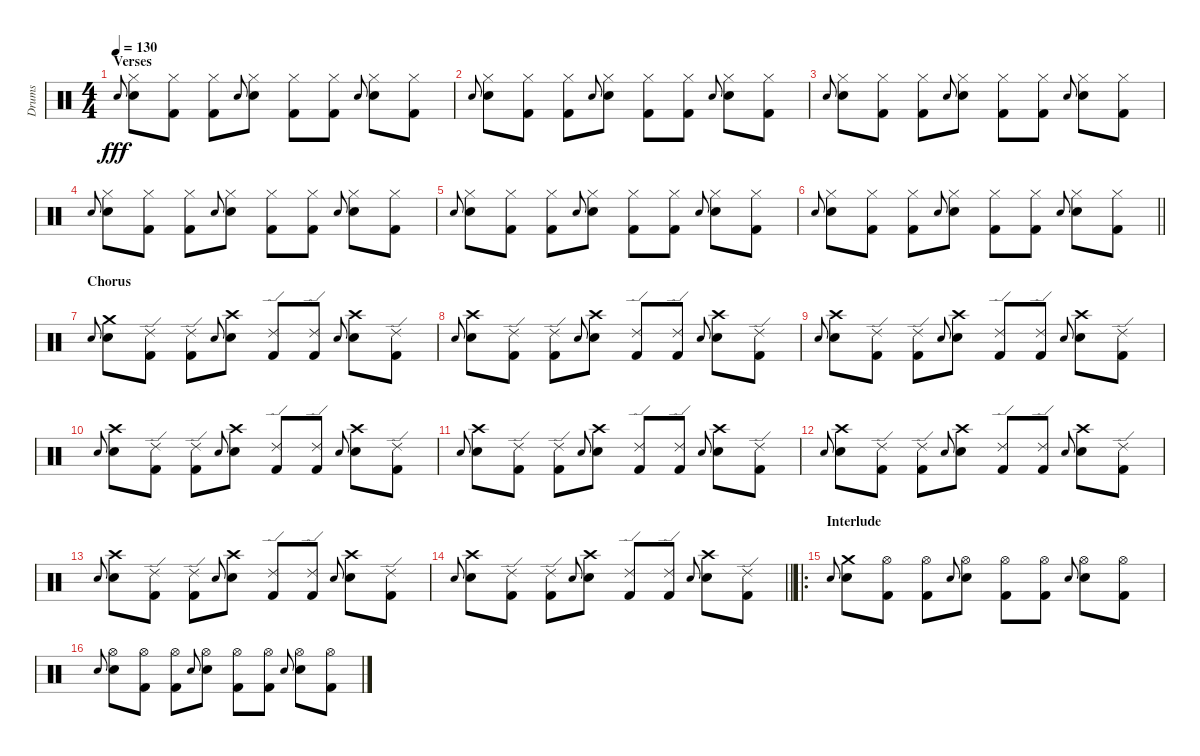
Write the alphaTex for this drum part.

\track ("Drums" "Drums") {instrument percussion}
\staff {score}
\articulation defaults
\ts (4 4)
\section ("" "Verses")
\tempo 130
\clef neutral
\ks c "Electric Snare (hit)".8{gr onbeat dy fff}
("Hi-Hat (closed)" "Electric Snare (hit)").8 ("Hi-Hat (closed)" "Kick (hit) 2").8 ("Hi-Hat (closed)" "Kick (hit) 2").8 "Electric Snare (hit)".8{gr onbeat} ("Hi-Hat (closed)" "Electric Snare (hit)").8 ("Hi-Hat (closed)" "Kick (hit) 2").8 ("Hi-Hat (closed)" "Kick (hit) 2").8 "Electric Snare (hit)".8{gr onbeat} ("Hi-Hat (closed)" "Electric Snare (hit)").8 ("Hi-Hat (closed)" "Kick (hit) 2").8 |
"Electric Snare (hit)".8{gr onbeat} ("Hi-Hat (closed)" "Electric Snare (hit)").8 ("Hi-Hat (closed)" "Kick (hit) 2").8 ("Hi-Hat (closed)" "Kick (hit) 2").8 "Electric Snare (hit)".8{gr onbeat} ("Hi-Hat (closed)" "Electric Snare (hit)").8 ("Hi-Hat (closed)" "Kick (hit) 2").8 ("Hi-Hat (closed)" "Kick (hit) 2").8 "Electric Snare (hit)".8{gr onbeat} ("Hi-Hat (closed)" "Electric Snare (hit)").8 ("Hi-Hat (closed)" "Kick (hit) 2").8 |
"Electric Snare (hit)".8{gr onbeat} ("Hi-Hat (closed)" "Electric Snare (hit)").8 ("Hi-Hat (closed)" "Kick (hit) 2").8 ("Hi-Hat (closed)" "Kick (hit) 2").8 "Electric Snare (hit)".8{gr onbeat} ("Hi-Hat (closed)" "Electric Snare (hit)").8 ("Hi-Hat (closed)" "Kick (hit) 2").8 ("Hi-Hat (closed)" "Kick (hit) 2").8 "Electric Snare (hit)".8{gr onbeat} ("Hi-Hat (closed)" "Electric Snare (hit)").8 ("Hi-Hat (closed)" "Kick (hit) 2").8 |
"Electric Snare (hit)".8{gr onbeat} ("Hi-Hat (closed)" "Electric Snare (hit)").8 ("Hi-Hat (closed)" "Kick (hit) 2").8 ("Hi-Hat (closed)" "Kick (hit) 2").8 "Electric Snare (hit)".8{gr onbeat} ("Hi-Hat (closed)" "Electric Snare (hit)").8 ("Hi-Hat (closed)" "Kick (hit) 2").8 ("Hi-Hat (closed)" "Kick (hit) 2").8 "Electric Snare (hit)".8{gr onbeat} ("Hi-Hat (closed)" "Electric Snare (hit)").8 ("Hi-Hat (closed)" "Kick (hit) 2").8 |
"Electric Snare (hit)".8{gr onbeat} ("Hi-Hat (closed)" "Electric Snare (hit)").8 ("Hi-Hat (closed)" "Kick (hit) 2").8 ("Hi-Hat (closed)" "Kick (hit) 2").8 "Electric Snare (hit)".8{gr onbeat} ("Hi-Hat (closed)" "Electric Snare (hit)").8 ("Hi-Hat (closed)" "Kick (hit) 2").8 ("Hi-Hat (closed)" "Kick (hit) 2").8 "Electric Snare (hit)".8{gr onbeat} ("Hi-Hat (closed)" "Electric Snare (hit)").8 ("Hi-Hat (closed)" "Kick (hit) 2").8 |
\barLineRight lightlight "Electric Snare (hit)".8{gr onbeat}
("Hi-Hat (closed)" "Electric Snare (hit)").8 ("Hi-Hat (closed)" "Kick (hit) 2").8 ("Hi-Hat (closed)" "Kick (hit) 2").8 "Electric Snare (hit)".8{gr onbeat} ("Hi-Hat (closed)" "Electric Snare (hit)").8 ("Hi-Hat (closed)" "Kick (hit) 2").8 ("Hi-Hat (closed)" "Kick (hit) 2").8 "Electric Snare (hit)".8{gr onbeat} ("Hi-Hat (closed)" "Electric Snare (hit)").8 ("Hi-Hat (closed)" "Kick (hit) 2").8 |
\section ("" "Chorus")
"Electric Snare (hit)".8{gr onbeat} ("Crash medium (hit)" "Electric Snare (hit)").8 ("Ride (edge) 2" "Kick (hit) 2").8 ("Ride (edge) 2" "Kick (hit) 2").8 "Electric Snare (hit)".8{gr onbeat} ("Crash high (hit)" "Electric Snare (hit)").8 ("Ride (edge) 2" "Kick (hit) 2").8 ("Ride (edge) 2" "Kick (hit) 2").8 "Electric Snare (hit)".8{gr onbeat} ("Crash high (hit)" "Electric Snare (hit)").8 ("Ride (edge) 2" "Kick (hit) 2").8 |
"Electric Snare (hit)".8{gr onbeat} ("Crash high (hit)" "Electric Snare (hit)").8 ("Ride (edge) 2" "Kick (hit) 2").8 ("Ride (edge) 2" "Kick (hit) 2").8 "Electric Snare (hit)".8{gr onbeat} ("Crash high (hit)" "Electric Snare (hit)").8 ("Ride (edge) 2" "Kick (hit) 2").8 ("Ride (edge) 2" "Kick (hit) 2").8 "Electric Snare (hit)".8{gr onbeat} ("Crash high (hit)" "Electric Snare (hit)").8 ("Ride (edge) 2" "Kick (hit) 2").8 |
"Electric Snare (hit)".8{gr onbeat} ("Crash high (hit)" "Electric Snare (hit)").8 ("Ride (edge) 2" "Kick (hit) 2").8 ("Ride (edge) 2" "Kick (hit) 2").8 "Electric Snare (hit)".8{gr onbeat} ("Crash high (hit)" "Electric Snare (hit)").8 ("Ride (edge) 2" "Kick (hit) 2").8 ("Ride (edge) 2" "Kick (hit) 2").8 "Electric Snare (hit)".8{gr onbeat} ("Crash high (hit)" "Electric Snare (hit)").8 ("Ride (edge) 2" "Kick (hit) 2").8 |
"Electric Snare (hit)".8{gr onbeat} ("Crash high (hit)" "Electric Snare (hit)").8 ("Ride (edge) 2" "Kick (hit) 2").8 ("Ride (edge) 2" "Kick (hit) 2").8 "Electric Snare (hit)".8{gr onbeat} ("Crash high (hit)" "Electric Snare (hit)").8 ("Ride (edge) 2" "Kick (hit) 2").8 ("Ride (edge) 2" "Kick (hit) 2").8 "Electric Snare (hit)".8{gr onbeat} ("Crash high (hit)" "Electric Snare (hit)").8 ("Ride (edge) 2" "Kick (hit) 2").8 |
"Electric Snare (hit)".8{gr onbeat} ("Crash high (hit)" "Electric Snare (hit)").8 ("Ride (edge) 2" "Kick (hit) 2").8 ("Ride (edge) 2" "Kick (hit) 2").8 "Electric Snare (hit)".8{gr onbeat} ("Crash high (hit)" "Electric Snare (hit)").8 ("Ride (edge) 2" "Kick (hit) 2").8 ("Ride (edge) 2" "Kick (hit) 2").8 "Electric Snare (hit)".8{gr onbeat} ("Crash high (hit)" "Electric Snare (hit)").8 ("Ride (edge) 2" "Kick (hit) 2").8 |
"Electric Snare (hit)".8{gr onbeat} ("Crash high (hit)" "Electric Snare (hit)").8 ("Ride (edge) 2" "Kick (hit) 2").8 ("Ride (edge) 2" "Kick (hit) 2").8 "Electric Snare (hit)".8{gr onbeat} ("Crash high (hit)" "Electric Snare (hit)").8 ("Ride (edge) 2" "Kick (hit) 2").8 ("Ride (edge) 2" "Kick (hit) 2").8 "Electric Snare (hit)".8{gr onbeat} ("Crash high (hit)" "Electric Snare (hit)").8 ("Ride (edge) 2" "Kick (hit) 2").8 |
"Electric Snare (hit)".8{gr onbeat} ("Crash high (hit)" "Electric Snare (hit)").8 ("Ride (edge) 2" "Kick (hit) 2").8 ("Ride (edge) 2" "Kick (hit) 2").8 "Electric Snare (hit)".8{gr onbeat} ("Crash high (hit)" "Electric Snare (hit)").8 ("Ride (edge) 2" "Kick (hit) 2").8 ("Ride (edge) 2" "Kick (hit) 2").8 "Electric Snare (hit)".8{gr onbeat} ("Crash high (hit)" "Electric Snare (hit)").8 ("Ride (edge) 2" "Kick (hit) 2").8 |
\barLineRight lightlight "Electric Snare (hit)".8{gr onbeat}
("Crash high (hit)" "Electric Snare (hit)").8 ("Ride (edge) 2" "Kick (hit) 2").8 ("Ride (edge) 2" "Kick (hit) 2").8 "Electric Snare (hit)".8{gr onbeat} ("Crash high (hit)" "Electric Snare (hit)").8 ("Ride (edge) 2" "Kick (hit) 2").8 ("Ride (edge) 2" "Kick (hit) 2").8 "Electric Snare (hit)".8{gr onbeat} ("Crash high (hit)" "Electric Snare (hit)").8 ("Ride (edge) 2" "Kick (hit) 2").8 |
\ro
\section ("" "Interlude")
"Electric Snare (hit)".8{gr onbeat} ("Crash medium (hit)" "Electric Snare (hit)").8 ("Hi-Hat (open)" "Kick (hit) 2").8 ("Hi-Hat (open)" "Kick (hit) 2").8 "Electric Snare (hit)".8{gr onbeat} ("Hi-Hat (open)" "Electric Snare (hit)").8 ("Hi-Hat (open)" "Kick (hit) 2").8 ("Hi-Hat (open)" "Kick (hit) 2").8 "Electric Snare (hit)".8{gr onbeat} ("Hi-Hat (open)" "Electric Snare (hit)").8 ("Hi-Hat (open)" "Kick (hit) 2").8 |
"Electric Snare (hit)".8{gr onbeat} ("Hi-Hat (open)" "Electric Snare (hit)").8 ("Hi-Hat (open)" "Kick (hit) 2").8 ("Hi-Hat (open)" "Kick (hit) 2").8 "Electric Snare (hit)".8{gr onbeat} ("Hi-Hat (open)" "Electric Snare (hit)").8 ("Hi-Hat (open)" "Kick (hit) 2").8 ("Hi-Hat (open)" "Kick (hit) 2").8 "Electric Snare (hit)".8{gr onbeat} ("Hi-Hat (open)" "Electric Snare (hit)").8 ("Hi-Hat (open)" "Kick (hit) 2").8
